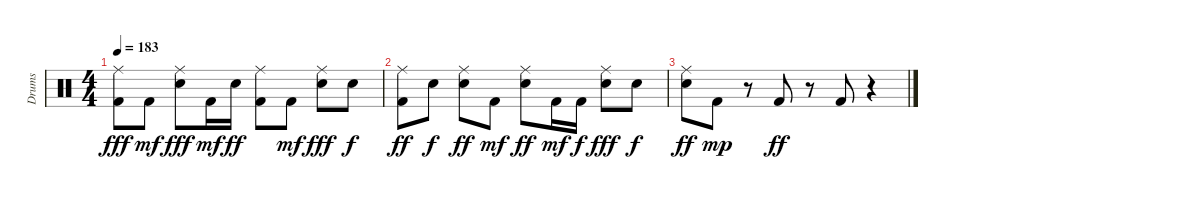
\track ("Drums" "Drums") {instrument percussion}
\staff {score}
\articulation defaults
\ts (4 4)
\tempo 183
\clef neutral
\ks c
("Kick (hit) 2" "Ride (middle)").8{dy fff} "Kick (hit) 2".8{dy mf} ("Snare (hit) 2" "Ride (middle)").8{dy fff} "Kick (hit) 2".16{dy mf} "Snare (hit) 2".16{dy ff} ("Kick (hit) 2" "Ride (middle)").8 "Kick (hit) 2".8{dy mf} ("Snare (hit) 2" "Ride (middle)").8{dy fff} "Snare (hit) 2".8{dy f} |
("Kick (hit) 2" "Ride (middle)").8{dy ff} "Snare (hit) 2".8{dy f} ("Snare (hit) 2" "Ride (middle)").8{dy ff} "Kick (hit) 2".8{dy mf} ("Snare (hit) 2" "Ride (middle)").8{dy ff} "Kick (hit) 2".16{dy mf} "Kick (hit) 2".16{dy f} ("Snare (hit) 2" "Ride (middle)").8{dy fff} "Snare (hit) 2".8{dy f} |
("Snare (hit) 2" "Ride (middle)").8{dy ff} "Kick (hit) 2".8{dy mp} r.8 "Kick (hit) 2".8{dy ff} r.8 "Kick (hit) 2".8 r.4
